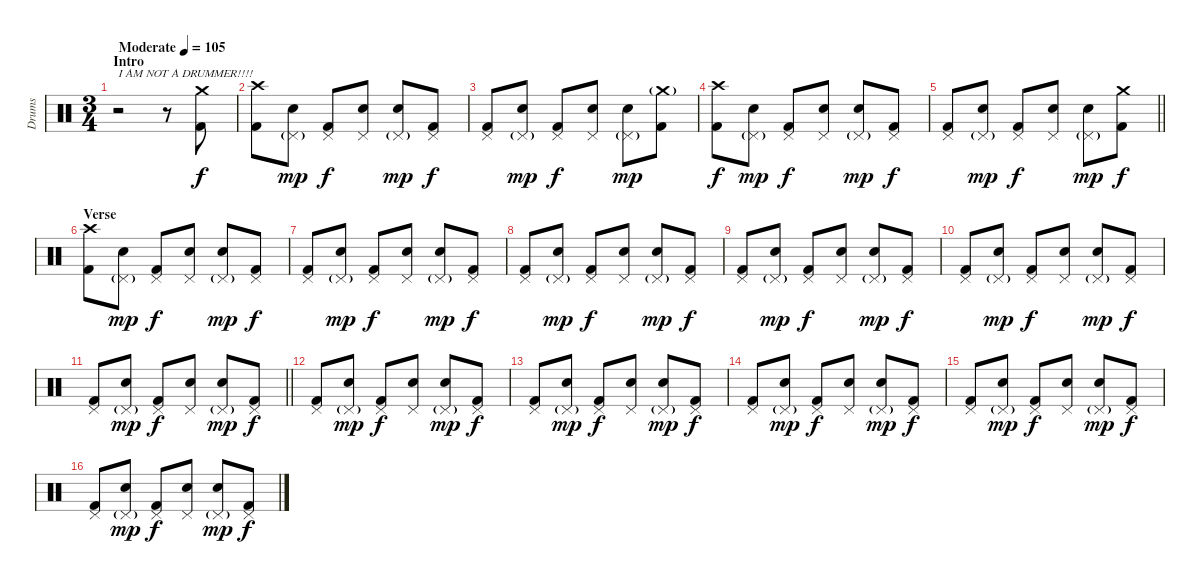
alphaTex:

\track ("Drums" "Drums") {instrument percussion}
\staff {score}
\articulation defaults
\ts (3 4)
\section ("" "Intro")
\tempo (105 "Moderate")
\clef neutral
\ks c
r.2{txt "I AM NOT A DRUMMER!!!!" dy f} r.8 ("Crash medium (hit)" "Kick (hit) 2").8 |
("Crash high (hit)" "Kick (hit) 2").8 ("Pedal Hi-Hat (hit)"{g} "Snare (hit)").8{dy mp} ("Pedal Hi-Hat (hit)" "Kick (hit) 2").8{dy f} ("Pedal Hi-Hat (hit)" "Electric Snare (hit)").8 ("Pedal Hi-Hat (hit)"{g} "Snare (hit)").8{dy mp} ("Pedal Hi-Hat (hit)" "Kick (hit) 2").8{dy f} |
("Pedal Hi-Hat (hit)" "Kick (hit) 2").8 ("Pedal Hi-Hat (hit)"{g} "Snare (hit)").8{dy mp} ("Pedal Hi-Hat (hit)" "Kick (hit) 2").8{dy f} ("Pedal Hi-Hat (hit)" "Electric Snare (hit)").8 ("Pedal Hi-Hat (hit)"{g} "Snare (hit)").8{dy mp} ("Crash medium (hit)"{g} "Kick (hit) 2").8 |
("Crash high (hit)" "Kick (hit) 2").8{dy f} ("Pedal Hi-Hat (hit)"{g} "Snare (hit)").8{dy mp} ("Pedal Hi-Hat (hit)" "Kick (hit) 2").8{dy f} ("Pedal Hi-Hat (hit)" "Electric Snare (hit)").8 ("Pedal Hi-Hat (hit)"{g} "Snare (hit)").8{dy mp} ("Pedal Hi-Hat (hit)" "Kick (hit) 2").8{dy f} |
\barLineRight lightlight
("Pedal Hi-Hat (hit)" "Kick (hit) 2").8 ("Pedal Hi-Hat (hit)"{g} "Snare (hit)").8{dy mp} ("Pedal Hi-Hat (hit)" "Kick (hit) 2").8{dy f} ("Pedal Hi-Hat (hit)" "Electric Snare (hit)").8 ("Pedal Hi-Hat (hit)"{g} "Snare (hit)").8{dy mp} ("Crash medium (hit)" "Kick (hit) 2").8{dy f} |
\section ("" "Verse")
("Crash high (hit)" "Kick (hit) 2").8 ("Pedal Hi-Hat (hit)"{g} "Snare (hit)").8{dy mp} ("Pedal Hi-Hat (hit)" "Kick (hit) 2").8{dy f} ("Pedal Hi-Hat (hit)" "Electric Snare (hit)").8 ("Pedal Hi-Hat (hit)"{g} "Snare (hit)").8{dy mp} ("Pedal Hi-Hat (hit)" "Kick (hit) 2").8{dy f} |
("Pedal Hi-Hat (hit)" "Kick (hit) 2").8 ("Pedal Hi-Hat (hit)"{g} "Snare (hit)").8{dy mp} ("Pedal Hi-Hat (hit)" "Kick (hit) 2").8{dy f} ("Pedal Hi-Hat (hit)" "Electric Snare (hit)").8 ("Pedal Hi-Hat (hit)"{g} "Snare (hit)").8{dy mp} ("Pedal Hi-Hat (hit)" "Kick (hit) 2").8{dy f} |
("Pedal Hi-Hat (hit)" "Kick (hit) 2").8 ("Pedal Hi-Hat (hit)"{g} "Snare (hit)").8{dy mp} ("Pedal Hi-Hat (hit)" "Kick (hit) 2").8{dy f} ("Pedal Hi-Hat (hit)" "Electric Snare (hit)").8 ("Pedal Hi-Hat (hit)"{g} "Snare (hit)").8{dy mp} ("Pedal Hi-Hat (hit)" "Kick (hit) 2").8{dy f} |
("Pedal Hi-Hat (hit)" "Kick (hit) 2").8 ("Pedal Hi-Hat (hit)"{g} "Snare (hit)").8{dy mp} ("Pedal Hi-Hat (hit)" "Kick (hit) 2").8{dy f} ("Pedal Hi-Hat (hit)" "Electric Snare (hit)").8 ("Pedal Hi-Hat (hit)"{g} "Snare (hit)").8{dy mp} ("Pedal Hi-Hat (hit)" "Kick (hit) 2").8{dy f} |
("Pedal Hi-Hat (hit)" "Kick (hit) 2").8 ("Pedal Hi-Hat (hit)"{g} "Snare (hit)").8{dy mp} ("Pedal Hi-Hat (hit)" "Kick (hit) 2").8{dy f} ("Pedal Hi-Hat (hit)" "Electric Snare (hit)").8 ("Pedal Hi-Hat (hit)"{g} "Snare (hit)").8{dy mp} ("Pedal Hi-Hat (hit)" "Kick (hit) 2").8{dy f} |
\barLineRight lightlight
("Pedal Hi-Hat (hit)" "Kick (hit) 2").8 ("Pedal Hi-Hat (hit)"{g} "Snare (hit)").8{dy mp} ("Pedal Hi-Hat (hit)" "Kick (hit) 2").8{dy f} ("Pedal Hi-Hat (hit)" "Electric Snare (hit)").8 ("Pedal Hi-Hat (hit)"{g} "Snare (hit)").8{dy mp} ("Pedal Hi-Hat (hit)" "Kick (hit) 2").8{dy f} |
("Pedal Hi-Hat (hit)" "Kick (hit) 2").8 ("Pedal Hi-Hat (hit)"{g} "Snare (hit)").8{dy mp} ("Pedal Hi-Hat (hit)" "Kick (hit) 2").8{dy f} ("Pedal Hi-Hat (hit)" "Electric Snare (hit)").8 ("Pedal Hi-Hat (hit)"{g} "Snare (hit)").8{dy mp} ("Pedal Hi-Hat (hit)" "Kick (hit) 2").8{dy f} |
("Pedal Hi-Hat (hit)" "Kick (hit) 2").8 ("Pedal Hi-Hat (hit)"{g} "Snare (hit)").8{dy mp} ("Pedal Hi-Hat (hit)" "Kick (hit) 2").8{dy f} ("Pedal Hi-Hat (hit)" "Electric Snare (hit)").8 ("Pedal Hi-Hat (hit)"{g} "Snare (hit)").8{dy mp} ("Pedal Hi-Hat (hit)" "Kick (hit) 2").8{dy f} |
("Pedal Hi-Hat (hit)" "Kick (hit) 2").8 ("Pedal Hi-Hat (hit)"{g} "Snare (hit)").8{dy mp} ("Pedal Hi-Hat (hit)" "Kick (hit) 2").8{dy f} ("Pedal Hi-Hat (hit)" "Electric Snare (hit)").8 ("Pedal Hi-Hat (hit)"{g} "Snare (hit)").8{dy mp} ("Pedal Hi-Hat (hit)" "Kick (hit) 2").8{dy f} |
("Pedal Hi-Hat (hit)" "Kick (hit) 2").8 ("Pedal Hi-Hat (hit)"{g} "Snare (hit)").8{dy mp} ("Pedal Hi-Hat (hit)" "Kick (hit) 2").8{dy f} ("Pedal Hi-Hat (hit)" "Electric Snare (hit)").8 ("Pedal Hi-Hat (hit)"{g} "Snare (hit)").8{dy mp} ("Pedal Hi-Hat (hit)" "Kick (hit) 2").8{dy f} |
("Pedal Hi-Hat (hit)" "Kick (hit) 2").8 ("Pedal Hi-Hat (hit)"{g} "Snare (hit)").8{dy mp} ("Pedal Hi-Hat (hit)" "Kick (hit) 2").8{dy f} ("Pedal Hi-Hat (hit)" "Electric Snare (hit)").8 ("Pedal Hi-Hat (hit)"{g} "Snare (hit)").8{dy mp} ("Pedal Hi-Hat (hit)" "Kick (hit) 2").8{dy f}
